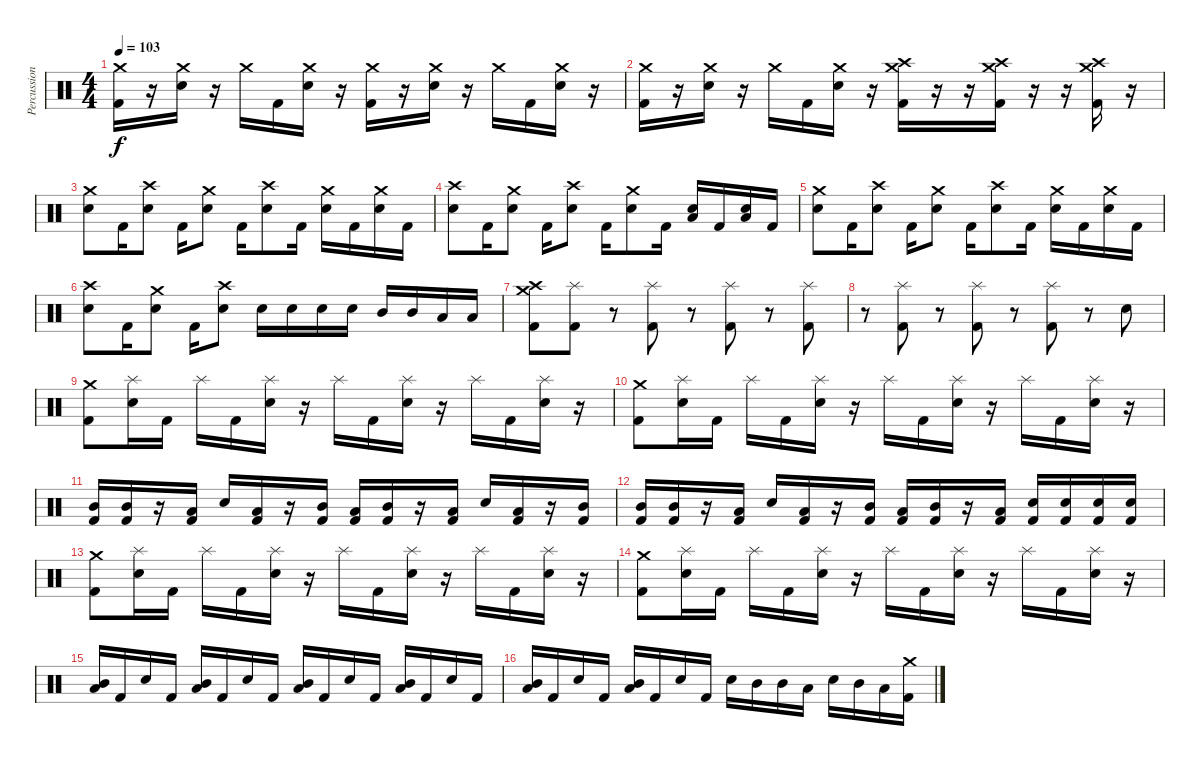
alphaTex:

\track ("Percussion" "Percussion") {instrument percussion}
\staff {score}
\articulation defaults
\ts (4 4)
\tempo 103
\clef neutral
\ks c
("Crash medium (hit)" "Kick (hit) 2").16{dy f} r.16 ("Crash medium (hit)" "Electric Snare (hit)").16 r.16 "Crash medium (hit)".16 "Kick (hit) 2".16 ("Crash medium (hit)" "Electric Snare (hit)").16 r.16 ("Crash medium (hit)" "Kick (hit) 2").16 r.16 ("Crash medium (hit)" "Electric Snare (hit)").16 r.16 "Crash medium (hit)".16 "Kick (hit) 2".16 ("Crash medium (hit)" "Electric Snare (hit)").16 r.16 |
("Crash medium (hit)" "Kick (hit) 2").16 r.16 ("Crash medium (hit)" "Electric Snare (hit)").16 r.16 "Crash medium (hit)".16 "Kick (hit) 2".16 ("Crash medium (hit)" "Electric Snare (hit)").16 r.16 ("Crash high (hit)" "Crash medium (hit)" "Kick (hit) 2").16 r.16 r.16 ("Crash high (hit)" "Crash medium (hit)" "Kick (hit) 2").16 r.16 r.16 ("Crash high (hit)" "Crash medium (hit)" "Kick (hit) 2").16 r.16 |
("Crash medium (hit)" "Electric Snare (hit)").8 "Kick (hit) 2".16 ("Crash high (hit)" "Electric Snare (hit)").8 "Kick (hit) 2".16 ("Crash medium (hit)" "Electric Snare (hit)").8 "Kick (hit) 2".16 ("Crash high (hit)" "Electric Snare (hit)").8 "Kick (hit) 2".16 ("Crash medium (hit)" "Electric Snare (hit)").16 "Kick (hit) 2".16 ("Crash medium (hit)" "Electric Snare (hit)").16 "Kick (hit) 2".16 |
("Crash high (hit)" "Electric Snare (hit)").8 "Kick (hit) 2".16 ("Crash medium (hit)" "Electric Snare (hit)").8 "Kick (hit) 2".16 ("Crash high (hit)" "Electric Snare (hit)").8 "Kick (hit) 2".16 ("Crash medium (hit)" "Electric Snare (hit)").8 "Kick (hit) 2".16 ("Low Tom (hit)" "Electric Snare (hit)").16 "Kick (hit) 2".16 ("Low Tom (hit)" "Electric Snare (hit)").16 "Kick (hit) 2".16 |
("Crash medium (hit)" "Electric Snare (hit)").8 "Kick (hit) 2".16 ("Crash high (hit)" "Electric Snare (hit)").8 "Kick (hit) 2".16 ("Crash medium (hit)" "Electric Snare (hit)").8 "Kick (hit) 2".16 ("Crash high (hit)" "Electric Snare (hit)").8 "Kick (hit) 2".16 ("Crash medium (hit)" "Electric Snare (hit)").16 "Kick (hit) 2".16 ("Crash medium (hit)" "Electric Snare (hit)").16 "Kick (hit) 2".16 |
("Crash high (hit)" "Electric Snare (hit)").8 "Kick (hit) 2".16 ("Crash medium (hit)" "Electric Snare (hit)").8 "Kick (hit) 2".16 ("Crash high (hit)" "Electric Snare (hit)").8 "Electric Snare (hit)".16 "Electric Snare (hit)".16 "Electric Snare (hit)".16 "Electric Snare (hit)".16 "Mid Tom (hit)".16 "Mid Tom (hit)".16 "Low Tom (hit)".16 "Low Tom (hit)".16 |
("Crash high (hit)" "Crash medium (hit)" "Kick (hit) 2").8 ("Splash (hit)" "Kick (hit) 2").8 r.8 ("Splash (hit)" "Kick (hit) 2").8 r.8 ("Splash (hit)" "Kick (hit) 2").8 r.8 ("Splash (hit)" "Kick (hit) 2").8 |
r.8 ("Splash (hit)" "Kick (hit) 2").8 r.8 ("Splash (hit)" "Kick (hit) 2").8 r.8 ("Splash (hit)" "Kick (hit) 2").8 r.8 "Electric Snare (hit)".8 |
("Crash medium (hit)" "Kick (hit) 2").8 ("Splash (hit)" "Electric Snare (hit)").16 "Kick (hit) 2".16 "Splash (hit)".16 "Kick (hit) 2".16 ("Splash (hit)" "Electric Snare (hit)").16 r.16 "Splash (hit)".16 "Kick (hit) 2".16 ("Splash (hit)" "Electric Snare (hit)").16 r.16 "Splash (hit)".16 "Kick (hit) 2".16 ("Splash (hit)" "Electric Snare (hit)").16 r.16 |
("Crash medium (hit)" "Kick (hit) 2").8 ("Splash (hit)" "Electric Snare (hit)").16 "Kick (hit) 2".16 "Splash (hit)".16 "Kick (hit) 2".16 ("Splash (hit)" "Electric Snare (hit)").16 r.16 "Splash (hit)".16 "Kick (hit) 2".16 ("Splash (hit)" "Electric Snare (hit)").16 r.16 "Splash (hit)".16 "Kick (hit) 2".16 ("Splash (hit)" "Electric Snare (hit)").16 r.16 |
("Mid Tom (hit)" "Kick (hit) 2").16 ("Mid Tom (hit)" "Kick (hit) 2").16 r.16 ("Low Tom (hit)" "Kick (hit) 2").16 "Electric Snare (hit)".16 ("Low Tom (hit)" "Kick (hit) 2").16 r.16 ("Mid Tom (hit)" "Kick (hit) 2").16 ("Low Tom (hit)" "Kick (hit) 2").16 ("Mid Tom (hit)" "Kick (hit) 2").16 r.16 ("Low Tom (hit)" "Kick (hit) 2").16 "Electric Snare (hit)".16 ("Low Tom (hit)" "Kick (hit) 2").16 r.16 ("Mid Tom (hit)" "Kick (hit) 2").16 |
("Mid Tom (hit)" "Kick (hit) 2").16 ("Mid Tom (hit)" "Kick (hit) 2").16 r.16 ("Low Tom (hit)" "Kick (hit) 2").16 "Electric Snare (hit)".16 ("Low Tom (hit)" "Kick (hit) 2").16 r.16 ("Mid Tom (hit)" "Kick (hit) 2").16 ("Low Tom (hit)" "Kick (hit) 2").16 ("Mid Tom (hit)" "Kick (hit) 2").16 r.16 ("Low Tom (hit)" "Kick (hit) 2").16 ("Electric Snare (hit)" "Kick (hit) 2").16 ("Electric Snare (hit)" "Kick (hit) 2").16 ("Electric Snare (hit)" "Kick (hit) 2").16 ("Electric Snare (hit)" "Kick (hit) 2").16 |
("Crash medium (hit)" "Kick (hit) 2").8 ("Splash (hit)" "Electric Snare (hit)").16 "Kick (hit) 2".16 "Splash (hit)".16 "Kick (hit) 2".16 ("Splash (hit)" "Electric Snare (hit)").16 r.16 "Splash (hit)".16 "Kick (hit) 2".16 ("Splash (hit)" "Electric Snare (hit)").16 r.16 "Splash (hit)".16 "Kick (hit) 2".16 ("Splash (hit)" "Electric Snare (hit)").16 r.16 |
("Crash medium (hit)" "Kick (hit) 2").8 ("Splash (hit)" "Electric Snare (hit)").16 "Kick (hit) 2".16 "Splash (hit)".16 "Kick (hit) 2".16 ("Splash (hit)" "Electric Snare (hit)").16 r.16 "Splash (hit)".16 "Kick (hit) 2".16 ("Splash (hit)" "Electric Snare (hit)").16 r.16 "Splash (hit)".16 "Kick (hit) 2".16 ("Splash (hit)" "Electric Snare (hit)").16 r.16 |
("Mid Tom (hit)" "Low Tom (hit)").16 "Kick (hit) 2".16 "Electric Snare (hit)".16 "Kick (hit) 2".16 ("Mid Tom (hit)" "Low Tom (hit)").16 "Kick (hit) 2".16 "Electric Snare (hit)".16 "Kick (hit) 2".16 ("Mid Tom (hit)" "Low Tom (hit)").16 "Kick (hit) 2".16 "Electric Snare (hit)".16 "Kick (hit) 2".16 ("Mid Tom (hit)" "Low Tom (hit)").16 "Kick (hit) 2".16 "Electric Snare (hit)".16 "Kick (hit) 2".16 |
("Mid Tom (hit)" "Low Tom (hit)").16 "Kick (hit) 2".16 "Electric Snare (hit)".16 "Kick (hit) 2".16 ("Mid Tom (hit)" "Low Tom (hit)").16 "Kick (hit) 2".16 "Electric Snare (hit)".16 "Kick (hit) 2".16 "Electric Snare (hit)".16 "Mid Tom (hit)".16 "Mid Tom (hit)".16 "Low Tom (hit)".16 "Electric Snare (hit)".16 "Mid Tom (hit)".16 "Low Tom (hit)".16 ("Crash medium (hit)" "Kick (hit) 2").16
